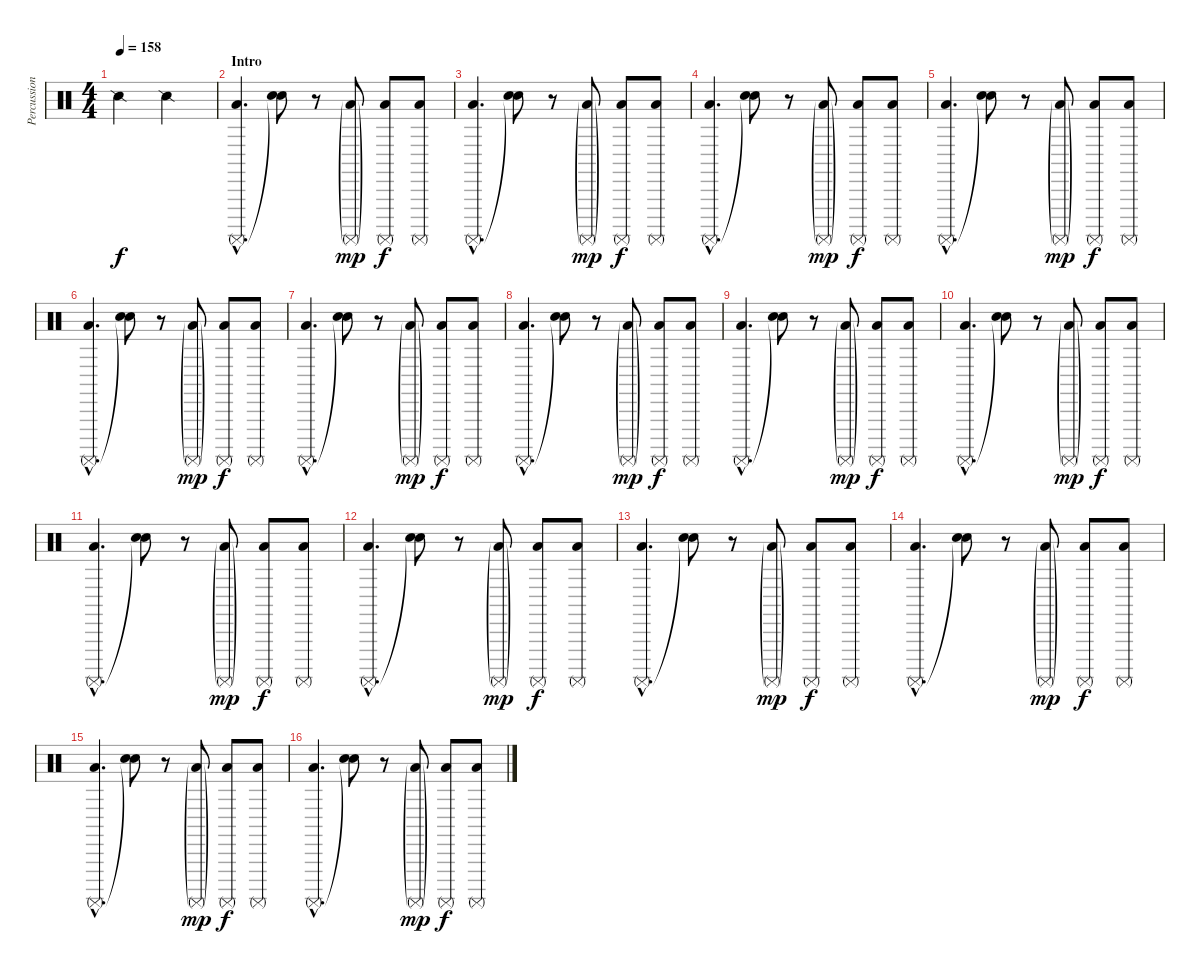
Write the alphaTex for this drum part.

\track ("Percussion" "Percussion") {instrument percussion}
\staff {score}
\articulation defaults
\ts (4 4)
\tempo 158
\clef neutral
\ks c "Snare (side stick) 2".2{dy f} "Snare (side stick) 2".2
|
\section ("" "Intro")
("Low Floor Tom (hit)"{hac} "Surdo (mute)"{hac}).4{d} ("Hand Clap (hit)" "Snare (hit)"{t}).8 r.8 ("Low Floor Tom (hit)"{g} "Surdo (mute)"{g}).8{dy mp} ("Low Floor Tom (hit)" "Surdo (mute)").8{dy f} ("Low Floor Tom (hit)" "Surdo (mute)").8 |
("Low Floor Tom (hit)"{hac} "Surdo (mute)"{hac}).4{d} ("Hand Clap (hit)" "Snare (hit)"{t}).8 r.8 ("Low Floor Tom (hit)"{g} "Surdo (mute)"{g}).8{dy mp} ("Low Floor Tom (hit)" "Surdo (mute)").8{dy f} ("Low Floor Tom (hit)" "Surdo (mute)").8 |
("Low Floor Tom (hit)"{hac} "Surdo (mute)"{hac}).4{d} ("Hand Clap (hit)" "Snare (hit)"{t}).8 r.8 ("Low Floor Tom (hit)"{g} "Surdo (mute)"{g}).8{dy mp} ("Low Floor Tom (hit)" "Surdo (mute)").8{dy f} ("Low Floor Tom (hit)" "Surdo (mute)").8 |
("Low Floor Tom (hit)"{hac} "Surdo (mute)"{hac}).4{d} ("Hand Clap (hit)" "Snare (hit)"{t}).8 r.8 ("Low Floor Tom (hit)"{g} "Surdo (mute)"{g}).8{dy mp} ("Low Floor Tom (hit)" "Surdo (mute)").8{dy f} ("Low Floor Tom (hit)" "Surdo (mute)").8 |
("Low Floor Tom (hit)"{hac} "Surdo (mute)"{hac}).4{d} ("Hand Clap (hit)" "Snare (hit)"{t}).8 r.8 ("Low Floor Tom (hit)"{g} "Surdo (mute)"{g}).8{dy mp} ("Low Floor Tom (hit)" "Surdo (mute)").8{dy f} ("Low Floor Tom (hit)" "Surdo (mute)").8 |
("Low Floor Tom (hit)"{hac} "Surdo (mute)"{hac}).4{d} ("Hand Clap (hit)" "Snare (hit)"{t}).8 r.8 ("Low Floor Tom (hit)"{g} "Surdo (mute)"{g}).8{dy mp} ("Low Floor Tom (hit)" "Surdo (mute)").8{dy f} ("Low Floor Tom (hit)" "Surdo (mute)").8 |
("Low Floor Tom (hit)"{hac} "Surdo (mute)"{hac}).4{d} ("Hand Clap (hit)" "Snare (hit)"{t}).8 r.8 ("Low Floor Tom (hit)"{g} "Surdo (mute)"{g}).8{dy mp} ("Low Floor Tom (hit)" "Surdo (mute)").8{dy f} ("Low Floor Tom (hit)" "Surdo (mute)").8 |
("Low Floor Tom (hit)"{hac} "Surdo (mute)"{hac}).4{d} ("Hand Clap (hit)" "Snare (hit)"{t}).8 r.8 ("Low Floor Tom (hit)"{g} "Surdo (mute)"{g}).8{dy mp} ("Low Floor Tom (hit)" "Surdo (mute)").8{dy f} ("Low Floor Tom (hit)" "Surdo (mute)").8 |
("Low Floor Tom (hit)"{hac} "Surdo (mute)"{hac}).4{d} ("Hand Clap (hit)" "Snare (hit)"{t}).8 r.8 ("Low Floor Tom (hit)"{g} "Surdo (mute)"{g}).8{dy mp} ("Low Floor Tom (hit)" "Surdo (mute)").8{dy f} ("Low Floor Tom (hit)" "Surdo (mute)").8 |
("Low Floor Tom (hit)"{hac} "Surdo (mute)"{hac}).4{d} ("Hand Clap (hit)" "Snare (hit)"{t}).8 r.8 ("Low Floor Tom (hit)"{g} "Surdo (mute)"{g}).8{dy mp} ("Low Floor Tom (hit)" "Surdo (mute)").8{dy f} ("Low Floor Tom (hit)" "Surdo (mute)").8 |
("Low Floor Tom (hit)"{hac} "Surdo (mute)"{hac}).4{d} ("Hand Clap (hit)" "Snare (hit)"{t}).8 r.8 ("Low Floor Tom (hit)"{g} "Surdo (mute)"{g}).8{dy mp} ("Low Floor Tom (hit)" "Surdo (mute)").8{dy f} ("Low Floor Tom (hit)" "Surdo (mute)").8 |
("Low Floor Tom (hit)"{hac} "Surdo (mute)"{hac}).4{d} ("Hand Clap (hit)" "Snare (hit)"{t}).8 r.8 ("Low Floor Tom (hit)"{g} "Surdo (mute)"{g}).8{dy mp} ("Low Floor Tom (hit)" "Surdo (mute)").8{dy f} ("Low Floor Tom (hit)" "Surdo (mute)").8 |
("Low Floor Tom (hit)"{hac} "Surdo (mute)"{hac}).4{d} ("Hand Clap (hit)" "Snare (hit)"{t}).8 r.8 ("Low Floor Tom (hit)"{g} "Surdo (mute)"{g}).8{dy mp} ("Low Floor Tom (hit)" "Surdo (mute)").8{dy f} ("Low Floor Tom (hit)" "Surdo (mute)").8 |
("Low Floor Tom (hit)"{hac} "Surdo (mute)"{hac}).4{d} ("Hand Clap (hit)" "Snare (hit)"{t}).8 r.8 ("Low Floor Tom (hit)"{g} "Surdo (mute)"{g}).8{dy mp} ("Low Floor Tom (hit)" "Surdo (mute)").8{dy f} ("Low Floor Tom (hit)" "Surdo (mute)").8 |
("Low Floor Tom (hit)"{hac} "Surdo (mute)"{hac}).4{d} ("Hand Clap (hit)" "Snare (hit)"{t}).8 r.8 ("Low Floor Tom (hit)"{g} "Surdo (mute)"{g}).8{dy mp} ("Low Floor Tom (hit)" "Surdo (mute)").8{dy f} ("Low Floor Tom (hit)" "Surdo (mute)").8
